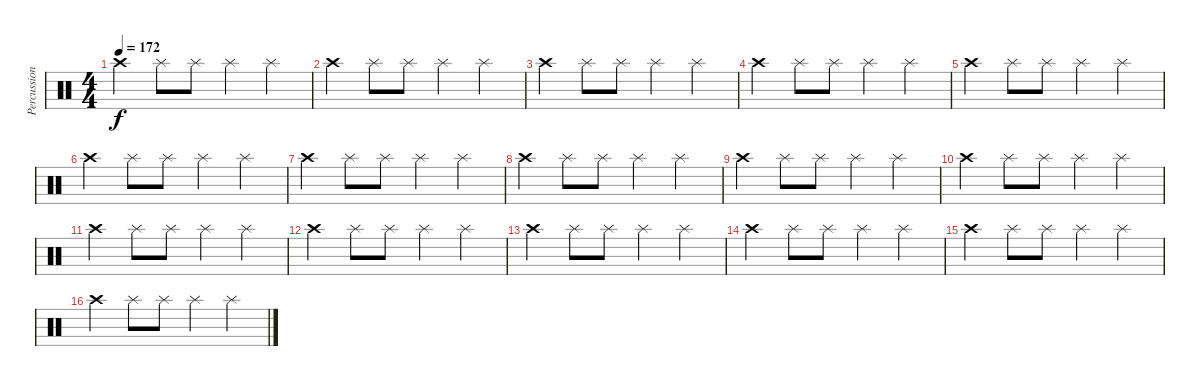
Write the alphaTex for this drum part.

\track ("Percussion" "Percussion") {instrument percussion}
\staff {score}
\articulation defaults
\ts (4 4)
\tempo 172
\clef neutral
\ks c "Crash high (hit)".4{dy f} "Splash (hit)".8 "Splash (hit)".8 "Splash (hit)".4 "Splash (hit)".4
|
"Crash high (hit)".4 "Splash (hit)".8 "Splash (hit)".8 "Splash (hit)".4 "Splash (hit)".4 |
"Crash high (hit)".4 "Splash (hit)".8 "Splash (hit)".8 "Splash (hit)".4 "Splash (hit)".4 |
"Crash high (hit)".4 "Splash (hit)".8 "Splash (hit)".8 "Splash (hit)".4 "Splash (hit)".4 |
"Crash high (hit)".4 "Splash (hit)".8 "Splash (hit)".8 "Splash (hit)".4 "Splash (hit)".4 |
"Crash high (hit)".4 "Splash (hit)".8 "Splash (hit)".8 "Splash (hit)".4 "Splash (hit)".4 |
"Crash high (hit)".4 "Splash (hit)".8 "Splash (hit)".8 "Splash (hit)".4 "Splash (hit)".4 |
"Crash high (hit)".4 "Splash (hit)".8 "Splash (hit)".8 "Splash (hit)".4 "Splash (hit)".4 |
"Crash high (hit)".4 "Splash (hit)".8 "Splash (hit)".8 "Splash (hit)".4 "Splash (hit)".4 |
"Crash high (hit)".4 "Splash (hit)".8 "Splash (hit)".8 "Splash (hit)".4 "Splash (hit)".4 |
"Crash high (hit)".4 "Splash (hit)".8 "Splash (hit)".8 "Splash (hit)".4 "Splash (hit)".4 |
"Crash high (hit)".4 "Splash (hit)".8 "Splash (hit)".8 "Splash (hit)".4 "Splash (hit)".4 |
"Crash high (hit)".4 "Splash (hit)".8 "Splash (hit)".8 "Splash (hit)".4 "Splash (hit)".4 |
"Crash high (hit)".4 "Splash (hit)".8 "Splash (hit)".8 "Splash (hit)".4 "Splash (hit)".4 |
"Crash high (hit)".4 "Splash (hit)".8 "Splash (hit)".8 "Splash (hit)".4 "Splash (hit)".4 |
"Crash high (hit)".4 "Splash (hit)".8 "Splash (hit)".8 "Splash (hit)".4 "Splash (hit)".4
